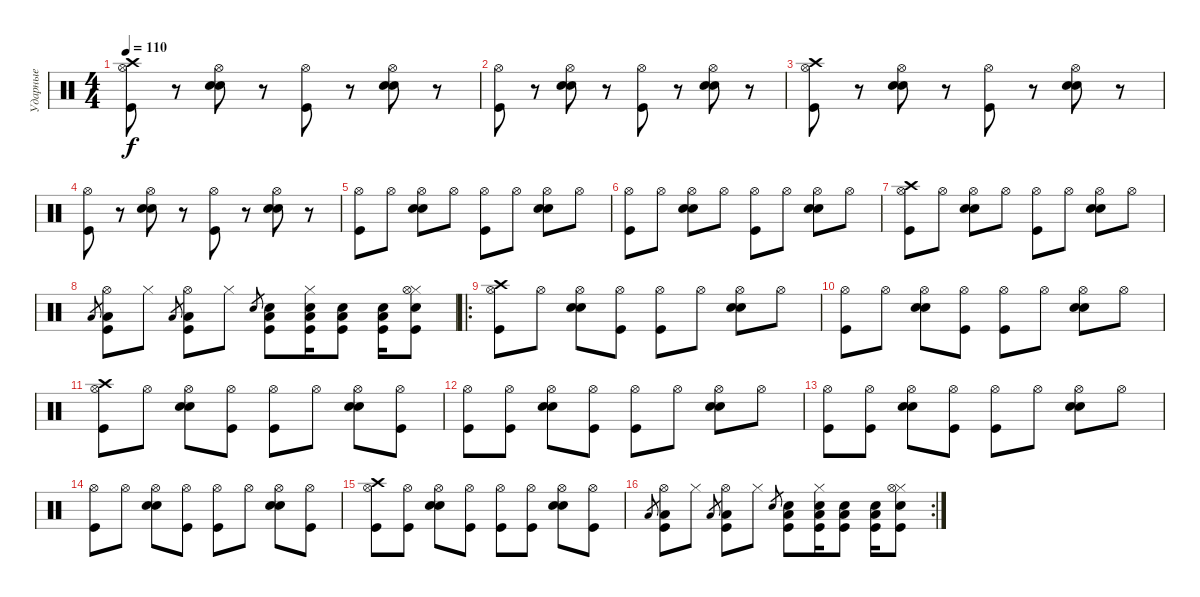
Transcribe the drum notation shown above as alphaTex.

\track ("Ударные" "Ударные") {instrument percussion}
\staff
\articulation defaults
\ts (4 4)
\tempo 110
\clef neutral
\ks c
("Crash high (hit)" "Hi-Hat (open)" "Kick (hit)").8{dy f} r.8 ("Hand Clap (hit)" "Hi-Hat (open)" "Snare (hit) 2").8 r.8 ("Hi-Hat (open)" "Kick (hit)").8 r.8 ("Hand Clap (hit)" "Hi-Hat (open)" "Snare (hit) 2").8 r.8 |
("Hi-Hat (open)" "Kick (hit)").8 r.8 ("Hand Clap (hit)" "Hi-Hat (open)" "Snare (hit) 2").8 r.8 ("Hi-Hat (open)" "Kick (hit)").8 r.8 ("Hand Clap (hit)" "Hi-Hat (open)" "Snare (hit) 2").8 r.8 |
("Crash high (hit)" "Hi-Hat (open)" "Kick (hit)").8 r.8 ("Hand Clap (hit)" "Hi-Hat (open)" "Snare (hit) 2").8 r.8 ("Hi-Hat (open)" "Kick (hit)").8 r.8 ("Hand Clap (hit)" "Hi-Hat (open)" "Snare (hit) 2").8 r.8 |
("Hi-Hat (open)" "Kick (hit)").8 r.8 ("Hand Clap (hit)" "Hi-Hat (open)" "Snare (hit) 2").8 r.8 ("Hi-Hat (open)" "Kick (hit)").8 r.8 ("Hand Clap (hit)" "Hi-Hat (open)" "Snare (hit) 2").8 r.8 |
("Hi-Hat (open)" "Kick (hit)").8 "Hi-Hat (open)".8 ("Hand Clap (hit)" "Hi-Hat (open)" "Snare (hit) 2").8 "Hi-Hat (open)".8 ("Hi-Hat (open)" "Kick (hit)").8 "Hi-Hat (open)".8 ("Hand Clap (hit)" "Hi-Hat (open)" "Snare (hit) 2").8 "Hi-Hat (open)".8 |
("Hi-Hat (open)" "Kick (hit)").8 "Hi-Hat (open)".8 ("Hand Clap (hit)" "Hi-Hat (open)" "Snare (hit) 2").8 "Hi-Hat (open)".8 ("Hi-Hat (open)" "Kick (hit)").8 "Hi-Hat (open)".8 ("Hand Clap (hit)" "Hi-Hat (open)" "Snare (hit) 2").8 "Hi-Hat (open)".8 |
("Crash high (hit)" "Hi-Hat (open)" "Kick (hit)").8 "Hi-Hat (open)".8 ("Hand Clap (hit)" "Hi-Hat (open)" "Snare (hit) 2").8 "Hi-Hat (open)".8 ("Hi-Hat (open)" "Kick (hit)").8 "Hi-Hat (open)".8 ("Hand Clap (hit)" "Hi-Hat (open)" "Snare (hit) 2").8 "Hi-Hat (open)".8 |
"Low Floor Tom (hit)".8{gr} ("Hi-Hat (open)" "Low Floor Tom (hit)" "Kick (hit)").8 "Hi-Hat (closed)".8 "Low Floor Tom (hit)".8{gr} ("Hi-Hat (open)" "Low Floor Tom (hit)" "Kick (hit)").8 "Hi-Hat (closed)".8 "Snare (hit) 2".8{gr} ("Low Floor Tom (hit)" "Snare (hit) 2" "Kick (hit)").8 ("Hi-Hat (closed)" "Low Floor Tom (hit)" "Snare (hit) 2" "Kick (hit)").16 ("Low Floor Tom (hit)" "Snare (hit) 2" "Kick (hit)").8 ("Low Floor Tom (hit)" "Snare (hit) 2" "Kick (hit)").16 ("Hi-Hat (closed)" "Hi-Hat (open)" "Snare (hit) 2" "Kick (hit)").8 |
\ro
("Crash high (hit)" "Hi-Hat (open)" "Kick (hit)").8 "Hi-Hat (open)".8 ("Hand Clap (hit)" "Hi-Hat (open)" "Snare (hit) 2").8 ("Hi-Hat (open)" "Kick (hit)").8 ("Hi-Hat (open)" "Kick (hit)").8 "Hi-Hat (open)".8 ("Hand Clap (hit)" "Hi-Hat (open)" "Snare (hit) 2").8 "Hi-Hat (open)".8 |
("Hi-Hat (open)" "Kick (hit)").8 "Hi-Hat (open)".8 ("Hand Clap (hit)" "Hi-Hat (open)" "Snare (hit) 2").8 ("Hi-Hat (open)" "Kick (hit)").8 ("Hi-Hat (open)" "Kick (hit)").8 "Hi-Hat (open)".8 ("Hand Clap (hit)" "Hi-Hat (open)" "Snare (hit) 2").8 "Hi-Hat (open)".8 |
("Crash high (hit)" "Hi-Hat (open)" "Kick (hit)").8 "Hi-Hat (open)".8 ("Hand Clap (hit)" "Hi-Hat (open)" "Snare (hit) 2").8 ("Hi-Hat (open)" "Kick (hit)").8 ("Hi-Hat (open)" "Kick (hit)").8 "Hi-Hat (open)".8 ("Hand Clap (hit)" "Hi-Hat (open)" "Snare (hit) 2").8 ("Hi-Hat (open)" "Kick (hit)").8 |
("Hi-Hat (open)" "Kick (hit)").8 ("Hi-Hat (open)" "Kick (hit)").8 ("Hand Clap (hit)" "Hi-Hat (open)" "Snare (hit) 2").8 ("Hi-Hat (open)" "Kick (hit)").8 ("Hi-Hat (open)" "Kick (hit)").8 "Hi-Hat (open)".8 ("Hand Clap (hit)" "Hi-Hat (open)" "Snare (hit) 2").8 "Hi-Hat (open)".8 |
("Hi-Hat (open)" "Kick (hit)").8 ("Hi-Hat (open)" "Kick (hit)").8 ("Hand Clap (hit)" "Hi-Hat (open)" "Snare (hit) 2").8 ("Hi-Hat (open)" "Kick (hit)").8 ("Hi-Hat (open)" "Kick (hit)").8 "Hi-Hat (open)".8 ("Hand Clap (hit)" "Hi-Hat (open)" "Snare (hit) 2").8 "Hi-Hat (open)".8 |
("Hi-Hat (open)" "Kick (hit)").8 "Hi-Hat (open)".8 ("Hand Clap (hit)" "Hi-Hat (open)" "Snare (hit) 2").8 ("Hi-Hat (open)" "Kick (hit)").8 ("Hi-Hat (open)" "Kick (hit)").8 "Hi-Hat (open)".8 ("Hand Clap (hit)" "Hi-Hat (open)" "Snare (hit) 2").8 ("Hi-Hat (open)" "Kick (hit)").8 |
("Crash high (hit)" "Hi-Hat (open)" "Kick (hit)").8 ("Hi-Hat (open)" "Kick (hit)").8 ("Hand Clap (hit)" "Hi-Hat (open)" "Snare (hit) 2").8 ("Hi-Hat (open)" "Kick (hit)").8 ("Hi-Hat (open)" "Kick (hit)").8 ("Hi-Hat (open)" "Kick (hit)").8 ("Hand Clap (hit)" "Hi-Hat (open)" "Snare (hit) 2").8 ("Hi-Hat (open)" "Kick (hit)").8 |
\rc 2 "Low Floor Tom (hit)".8{gr}
("Hi-Hat (open)" "Low Floor Tom (hit)" "Kick (hit)").8 "Hi-Hat (closed)".8 "Low Floor Tom (hit)".8{gr} ("Hi-Hat (open)" "Low Floor Tom (hit)" "Kick (hit)").8 "Hi-Hat (closed)".8 "Snare (hit) 2".8{gr} ("Low Floor Tom (hit)" "Snare (hit) 2" "Kick (hit)").8 ("Hi-Hat (closed)" "Low Floor Tom (hit)" "Snare (hit) 2" "Kick (hit)").16 ("Low Floor Tom (hit)" "Snare (hit) 2" "Kick (hit)").8 ("Low Floor Tom (hit)" "Snare (hit) 2" "Kick (hit)").16 ("Hi-Hat (closed)" "Hi-Hat (open)" "Snare (hit) 2" "Kick (hit)").8
